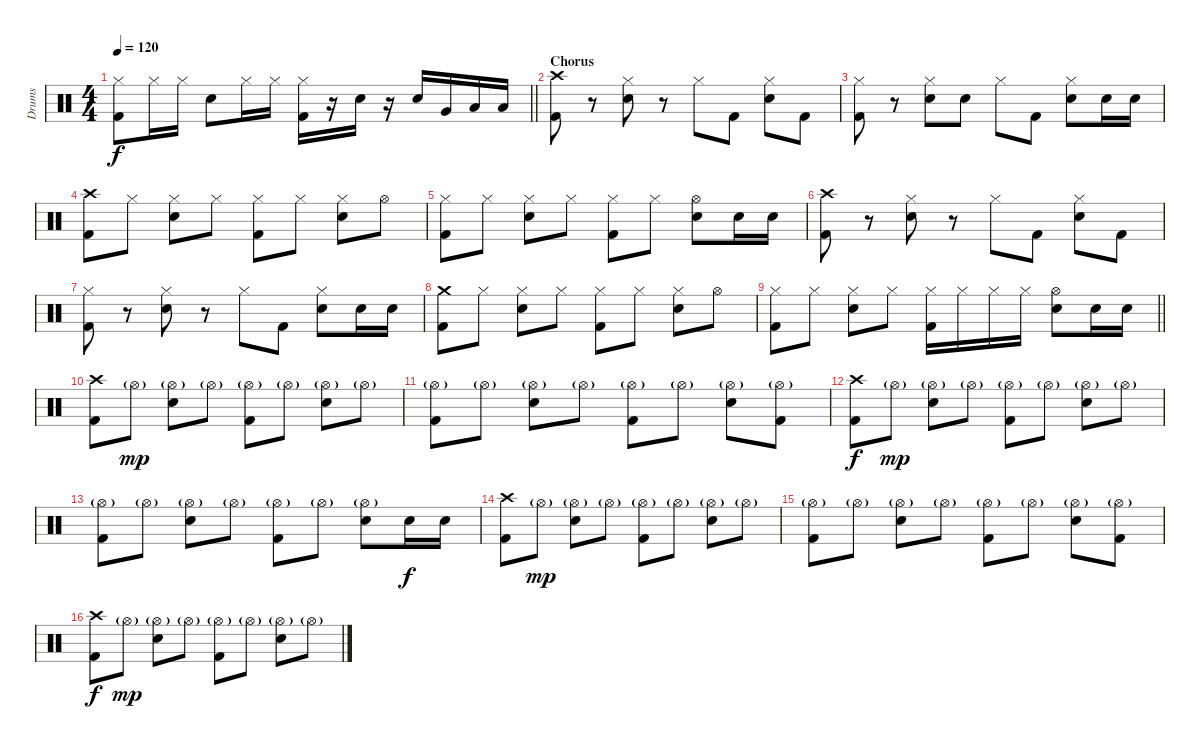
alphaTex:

\track ("Drums" "Drums") {instrument percussion}
\staff {score}
\articulation defaults
\ts (4 4)
\tempo 120
\clef neutral
\barLineRight lightlight
\ks c
("Hi-Hat (closed)" "Kick (hit) 2").8{dy f} "Hi-Hat (closed)".16 "Hi-Hat (closed)".16 "Electric Snare (hit)".8 "Hi-Hat (closed)".16 "Hi-Hat (closed)".16 ("Hi-Hat (closed)" "Kick (hit) 2").16 r.16 "Electric Snare (hit)".16 r.16 "Electric Snare (hit)".16 "Very Low Tom (hit)".16 "Low Tom (hit)".16 "Low Floor Tom (hit)".16 |
\section ("" "Chorus")
("Crash high (hit)" "Kick (hit) 2").8 r.8 ("Hi-Hat (closed)" "Electric Snare (hit)").8 r.8 "Hi-Hat (closed)".8 "Kick (hit) 2".8 ("Hi-Hat (closed)" "Electric Snare (hit)").8 "Kick (hit) 2".8 |
("Hi-Hat (closed)" "Kick (hit) 2").8 r.8 ("Hi-Hat (closed)" "Electric Snare (hit)").8 "Electric Snare (hit)".8 "Hi-Hat (closed)".8 "Kick (hit) 2".8 ("Hi-Hat (closed)" "Electric Snare (hit)").8 "Electric Snare (hit)".16 "Electric Snare (hit)".16 |
("Crash high (hit)" "Kick (hit) 2").8 "Hi-Hat (closed)".8 ("Hi-Hat (closed)" "Electric Snare (hit)").8 "Hi-Hat (closed)".8 ("Hi-Hat (closed)" "Kick (hit) 2").8 "Hi-Hat (closed)".8 ("Hi-Hat (closed)" "Electric Snare (hit)").8 "Hi-Hat (open)".8 |
("Hi-Hat (closed)" "Kick (hit) 2").8 "Hi-Hat (closed)".8 ("Hi-Hat (closed)" "Electric Snare (hit)").8 "Hi-Hat (closed)".8 ("Hi-Hat (closed)" "Kick (hit) 2").8 "Hi-Hat (closed)".8 ("Hi-Hat (open)" "Electric Snare (hit)").8 "Electric Snare (hit)".16 "Electric Snare (hit)".16 |
("Crash high (hit)" "Kick (hit) 2").8 r.8 ("Hi-Hat (closed)" "Electric Snare (hit)").8 r.8 "Hi-Hat (closed)".8 "Kick (hit) 2".8 ("Hi-Hat (closed)" "Electric Snare (hit)").8 "Kick (hit) 2".8 |
("Hi-Hat (closed)" "Kick (hit) 2").8 r.8 ("Hi-Hat (closed)" "Electric Snare (hit)").8 r.8 "Hi-Hat (closed)".8 "Kick (hit) 2".8 ("Hi-Hat (closed)" "Electric Snare (hit)").8 "Electric Snare (hit)".16 "Electric Snare (hit)".16 |
("Crash medium (hit)" "Kick (hit) 2").8 "Hi-Hat (closed)".8 ("Hi-Hat (closed)" "Electric Snare (hit)").8 "Hi-Hat (closed)".8 ("Hi-Hat (closed)" "Kick (hit) 2").8 "Hi-Hat (closed)".8 ("Hi-Hat (closed)" "Electric Snare (hit)").8 "Hi-Hat (open)".8 |
\barLineRight lightlight
("Hi-Hat (closed)" "Kick (hit) 2").8 "Hi-Hat (closed)".8 ("Hi-Hat (closed)" "Electric Snare (hit)").8 "Hi-Hat (closed)".8 ("Hi-Hat (closed)" "Kick (hit) 2").16 "Hi-Hat (closed)".16 "Hi-Hat (closed)".16 "Hi-Hat (closed)".16 ("Hi-Hat (open)" "Electric Snare (hit)").8 "Electric Snare (hit)".16 "Electric Snare (hit)".16 |
("Crash high (hit)" "Kick (hit) 2").8 "Hi-Hat (open)"{g}.8{dy mp} ("Hi-Hat (open)"{g} "Electric Snare (hit)").8 "Hi-Hat (open)"{g}.8 ("Hi-Hat (open)"{g} "Kick (hit) 2").8 "Hi-Hat (open)"{g}.8 ("Hi-Hat (open)"{g} "Electric Snare (hit)").8 "Hi-Hat (open)"{g}.8 |
("Hi-Hat (open)"{g} "Kick (hit) 2").8 "Hi-Hat (open)"{g}.8 ("Hi-Hat (open)"{g} "Electric Snare (hit)").8 "Hi-Hat (open)"{g}.8 ("Hi-Hat (open)"{g} "Kick (hit) 2").8 "Hi-Hat (open)"{g}.8 ("Hi-Hat (open)"{g} "Electric Snare (hit)").8 ("Hi-Hat (open)"{g} "Kick (hit) 2").8 |
("Crash high (hit)" "Kick (hit) 2").8{dy f} "Hi-Hat (open)"{g}.8{dy mp} ("Hi-Hat (open)"{g} "Electric Snare (hit)").8 "Hi-Hat (open)"{g}.8 ("Hi-Hat (open)"{g} "Kick (hit) 2").8 "Hi-Hat (open)"{g}.8 ("Hi-Hat (open)"{g} "Electric Snare (hit)").8 "Hi-Hat (open)"{g}.8 |
("Hi-Hat (open)"{g} "Kick (hit) 2").8 "Hi-Hat (open)"{g}.8 ("Hi-Hat (open)"{g} "Electric Snare (hit)").8 "Hi-Hat (open)"{g}.8 ("Hi-Hat (open)"{g} "Kick (hit) 2").8 "Hi-Hat (open)"{g}.8 ("Hi-Hat (open)"{g} "Electric Snare (hit)").8 "Electric Snare (hit)".16{dy f} "Electric Snare (hit)".16 |
("Crash high (hit)" "Kick (hit) 2").8 "Hi-Hat (open)"{g}.8{dy mp} ("Hi-Hat (open)"{g} "Electric Snare (hit)").8 "Hi-Hat (open)"{g}.8 ("Hi-Hat (open)"{g} "Kick (hit) 2").8 "Hi-Hat (open)"{g}.8 ("Hi-Hat (open)"{g} "Electric Snare (hit)").8 "Hi-Hat (open)"{g}.8 |
("Hi-Hat (open)"{g} "Kick (hit) 2").8 "Hi-Hat (open)"{g}.8 ("Hi-Hat (open)"{g} "Electric Snare (hit)").8 "Hi-Hat (open)"{g}.8 ("Hi-Hat (open)"{g} "Kick (hit) 2").8 "Hi-Hat (open)"{g}.8 ("Hi-Hat (open)"{g} "Electric Snare (hit)").8 ("Hi-Hat (open)"{g} "Kick (hit) 2").8 |
("Crash high (hit)" "Kick (hit) 2").8{dy f} "Hi-Hat (open)"{g}.8{dy mp} ("Hi-Hat (open)"{g} "Electric Snare (hit)").8 "Hi-Hat (open)"{g}.8 ("Hi-Hat (open)"{g} "Kick (hit) 2").8 "Hi-Hat (open)"{g}.8 ("Hi-Hat (open)"{g} "Electric Snare (hit)").8 "Hi-Hat (open)"{g}.8
